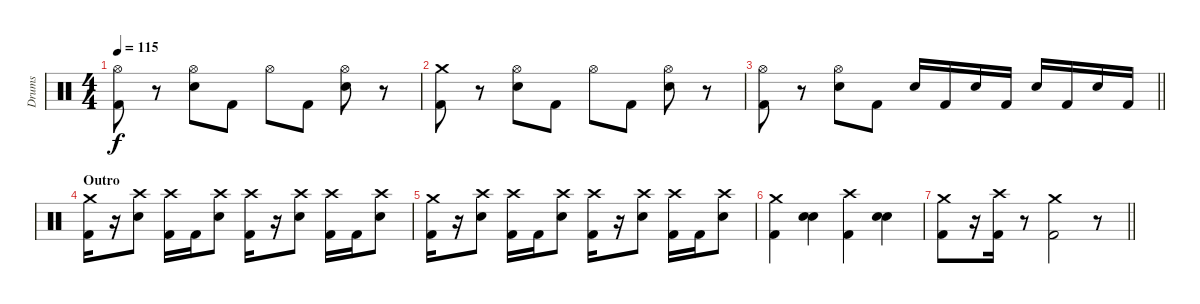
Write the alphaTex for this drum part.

\track ("Drums" "Drums") {instrument percussion}
\staff {score}
\articulation defaults
\ts (4 4)
\tempo 115
\clef neutral
\ks c
("Hi-Hat (open)" "Kick (hit) 2").8{dy f} r.8 ("Hi-Hat (open)" "Electric Snare (hit)").8 "Kick (hit) 2".8 "Hi-Hat (open)".8 "Kick (hit) 2".8 ("Hi-Hat (open)" "Electric Snare (hit)").8 r.8 |
("Crash medium (hit)" "Kick (hit) 2").8 r.8 ("Hi-Hat (open)" "Electric Snare (hit)").8 "Kick (hit) 2".8 "Hi-Hat (open)".8 "Kick (hit) 2".8 ("Hi-Hat (open)" "Electric Snare (hit)").8 r.8 |
\barLineRight lightlight
("Hi-Hat (open)" "Kick (hit) 2").8 r.8 ("Hi-Hat (open)" "Electric Snare (hit)").8 "Kick (hit) 2".8 "Electric Snare (hit)".16 "Kick (hit) 2".16 "Electric Snare (hit)".16 "Kick (hit) 2".16 "Electric Snare (hit)".16 "Kick (hit) 2".16 "Electric Snare (hit)".16 "Kick (hit) 2".16 |
\section ("" "Outro")
("Crash medium (hit)" "Kick (hit) 2").16 r.16 ("Crash high (hit)" "Electric Snare (hit)").8 ("Crash high (hit)" "Kick (hit) 2").16 "Kick (hit) 2".16 ("Crash high (hit)" "Electric Snare (hit)").8 ("Crash high (hit)" "Kick (hit) 2").16 r.16 ("Crash high (hit)" "Electric Snare (hit)").8 ("Crash high (hit)" "Kick (hit) 2").16 "Kick (hit) 2".16 ("Crash high (hit)" "Electric Snare (hit)").8 |
("Crash medium (hit)" "Kick (hit) 2").16 r.16 ("Crash high (hit)" "Electric Snare (hit)").8 ("Crash high (hit)" "Kick (hit) 2").16 "Kick (hit) 2".16 ("Crash high (hit)" "Electric Snare (hit)").8 ("Crash high (hit)" "Kick (hit) 2").16 r.16 ("Crash high (hit)" "Electric Snare (hit)").8 ("Crash high (hit)" "Kick (hit) 2").16 "Kick (hit) 2".16 ("Crash high (hit)" "Electric Snare (hit)").8 |
("Crash medium (hit)" "Kick (hit) 2").4 ("Snare (hit) 2" "Electric Snare (hit)").4 ("Crash high (hit)" "Kick (hit) 2").4 ("Snare (hit) 2" "Electric Snare (hit)").4 |
\barLineRight lightlight
("Crash medium (hit)" "Kick (hit) 2").8 r.16 ("Crash high (hit)" "Kick (hit) 2").16 r.8 ("Crash medium (hit)" "Kick (hit) 2").2 r.8
